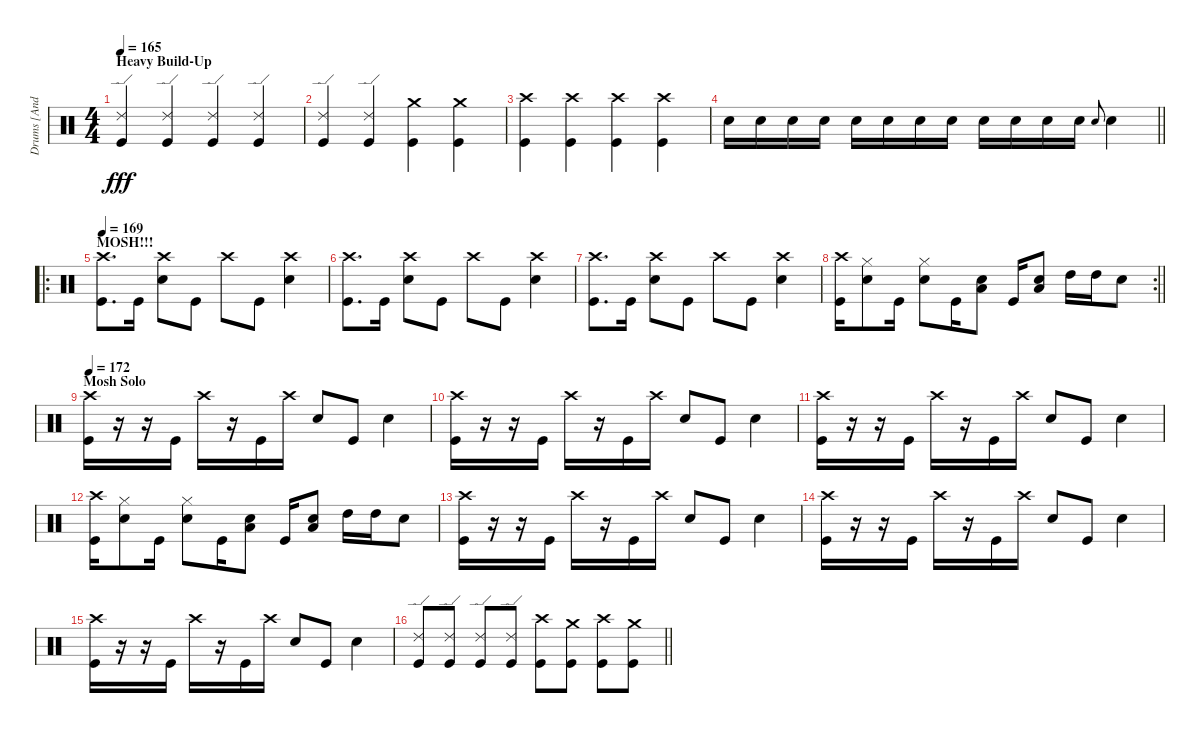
\track ("Drums [Andrew Forsman]" "Drums [And") {instrument percussion}
\staff {score}
\articulation defaults
\ts (4 4)
\section ("" "Heavy Build-Up")
\tempo 165
\clef neutral
\ks c
("Ride (edge) 2" "Kick (hit)").4{dy fff} ("Ride (edge) 2" "Kick (hit)").4 ("Ride (edge) 2" "Kick (hit)").4 ("Ride (edge) 2" "Kick (hit)").4 |
("Ride (edge) 2" "Kick (hit)").4 ("Ride (edge) 2" "Kick (hit)").4 ("Crash medium (hit)" "Kick (hit)").4 ("Crash medium (hit)" "Kick (hit)").4 |
("Crash high (hit)" "Kick (hit)").4 ("Crash high (hit)" "Kick (hit)").4 ("Crash high (hit)" "Kick (hit)").4 ("Crash high (hit)" "Kick (hit)").4 |
\barLineRight lightlight "Snare (hit) 2".16 "Snare (hit) 2".16 "Snare (hit) 2".16 "Snare (hit) 2".16 "Snare (hit) 2".16 "Snare (hit) 2".16 "Snare (hit) 2".16 "Snare (hit) 2".16 "Snare (hit) 2".16 "Snare (hit) 2".16 "Snare (hit) 2".16 "Snare (hit) 2".16 "Snare (hit) 2".8{gr onbeat} "Snare (hit) 2".4
|
\ro
\section ("" "MOSH!!!")
\tempo 169
("Crash high (hit)" "Kick (hit)").8{d} "Kick (hit)".16 ("Crash high (hit)" "Snare (hit) 2").8 "Kick (hit)".8 "Crash high (hit)".8 "Kick (hit)".8 ("Crash high (hit)" "Snare (hit) 2").4 |
("Crash high (hit)" "Kick (hit)").8{d} "Kick (hit)".16 ("Crash high (hit)" "Snare (hit) 2").8 "Kick (hit)".8 "Crash high (hit)".8 "Kick (hit)".8 ("Crash high (hit)" "Snare (hit) 2").4 |
("Crash high (hit)" "Kick (hit)").8{d} "Kick (hit)".16 ("Crash high (hit)" "Snare (hit) 2").8 "Kick (hit)".8 "Crash high (hit)".8 "Kick (hit)".8 ("Crash high (hit)" "Snare (hit) 2").4 |
\rc 2
\barLineRight lightlight
("Kick (hit)" "Crash high (hit)").16 ("Snare (hit) 2" "Hi-Hat (closed)").8 "Kick (hit)".16 ("Snare (hit) 2" "Hi-Hat (closed)").8 "Kick (hit)".16 ("Snare (hit) 2" "Low Tom (hit)").8 "Kick (hit)".16 ("Snare (hit) 2" "Low Tom (hit)").8 "High Tom (hit)".16 "High Tom (hit)".16 "Snare (hit) 2".8 |
\section ("" "Mosh Solo")
\tempo 172
("Crash high (hit)" "Kick (hit)").16 r.16 r.16 "Kick (hit)".16 "Crash high (hit)".16 r.16 "Kick (hit)".16 "Crash high (hit)".16 "Snare (hit) 2".8 "Kick (hit)".8 "Snare (hit) 2".4 |
("Crash high (hit)" "Kick (hit)").16 r.16 r.16 "Kick (hit)".16 "Crash high (hit)".16 r.16 "Kick (hit)".16 "Crash high (hit)".16 "Snare (hit) 2".8 "Kick (hit)".8 "Snare (hit) 2".4 |
("Crash high (hit)" "Kick (hit)").16 r.16 r.16 "Kick (hit)".16 "Crash high (hit)".16 r.16 "Kick (hit)".16 "Crash high (hit)".16 "Snare (hit) 2".8 "Kick (hit)".8 "Snare (hit) 2".4 |
("Kick (hit)" "Crash high (hit)").16 ("Snare (hit) 2" "Hi-Hat (closed)").8 "Kick (hit)".16 ("Snare (hit) 2" "Hi-Hat (closed)").8 "Kick (hit)".16 ("Snare (hit) 2" "Low Tom (hit)").8 "Kick (hit)".16 ("Snare (hit) 2" "Low Tom (hit)").8 "High Tom (hit)".16 "High Tom (hit)".16 "Snare (hit) 2".8 |
("Crash high (hit)" "Kick (hit)").16 r.16 r.16 "Kick (hit)".16 "Crash high (hit)".16 r.16 "Kick (hit)".16 "Crash high (hit)".16 "Snare (hit) 2".8 "Kick (hit)".8 "Snare (hit) 2".4 |
("Crash high (hit)" "Kick (hit)").16 r.16 r.16 "Kick (hit)".16 "Crash high (hit)".16 r.16 "Kick (hit)".16 "Crash high (hit)".16 "Snare (hit) 2".8 "Kick (hit)".8 "Snare (hit) 2".4 |
("Crash high (hit)" "Kick (hit)").16 r.16 r.16 "Kick (hit)".16 "Crash high (hit)".16 r.16 "Kick (hit)".16 "Crash high (hit)".16 "Snare (hit) 2".8 "Kick (hit)".8 "Snare (hit) 2".4 |
\barLineRight lightlight
("Ride (edge) 2" "Kick (hit)").8 ("Ride (edge) 2" "Kick (hit)").8 ("Ride (edge) 2" "Kick (hit)").8 ("Ride (edge) 2" "Kick (hit)").8 ("Crash high (hit)" "Kick (hit)").8 ("Crash medium (hit)" "Kick (hit)").8 ("Crash high (hit)" "Kick (hit)").8 ("Crash medium (hit)" "Kick (hit)").8
